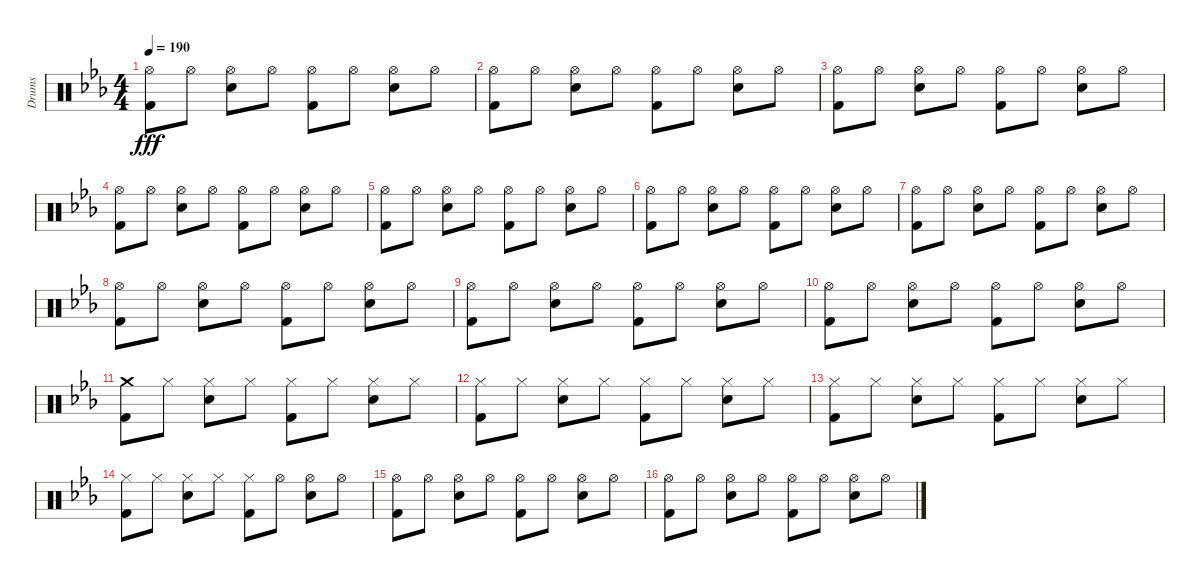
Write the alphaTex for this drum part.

\track ("Drums" "Drums") {instrument percussion}
\staff {score}
\articulation defaults
\ts (4 4)
\tempo 190
\clef neutral
\ks eb
("Hi-Hat (open)" "Kick (hit) 2").8{dy fff} "Hi-Hat (open)".8 ("Hi-Hat (open)" "Electric Snare (hit)").8 "Hi-Hat (open)".8 ("Hi-Hat (open)" "Kick (hit) 2").8 "Hi-Hat (open)".8 ("Hi-Hat (open)" "Electric Snare (hit)").8 "Hi-Hat (open)".8 |
("Hi-Hat (open)" "Kick (hit) 2").8 "Hi-Hat (open)".8 ("Hi-Hat (open)" "Electric Snare (hit)").8 "Hi-Hat (open)".8 ("Hi-Hat (open)" "Kick (hit) 2").8 "Hi-Hat (open)".8 ("Hi-Hat (open)" "Electric Snare (hit)").8 "Hi-Hat (open)".8 |
("Hi-Hat (open)" "Kick (hit) 2").8 "Hi-Hat (open)".8 ("Hi-Hat (open)" "Electric Snare (hit)").8 "Hi-Hat (open)".8 ("Hi-Hat (open)" "Kick (hit) 2").8 "Hi-Hat (open)".8 ("Hi-Hat (open)" "Electric Snare (hit)").8 "Hi-Hat (open)".8 |
("Hi-Hat (open)" "Kick (hit) 2").8 "Hi-Hat (open)".8 ("Hi-Hat (open)" "Electric Snare (hit)").8 "Hi-Hat (open)".8 ("Hi-Hat (open)" "Kick (hit) 2").8 "Hi-Hat (open)".8 ("Hi-Hat (open)" "Electric Snare (hit)").8 "Hi-Hat (open)".8 |
("Hi-Hat (open)" "Kick (hit) 2").8 "Hi-Hat (open)".8 ("Hi-Hat (open)" "Electric Snare (hit)").8 "Hi-Hat (open)".8 ("Hi-Hat (open)" "Kick (hit) 2").8 "Hi-Hat (open)".8 ("Hi-Hat (open)" "Electric Snare (hit)").8 "Hi-Hat (open)".8 |
("Hi-Hat (open)" "Kick (hit) 2").8 "Hi-Hat (open)".8 ("Hi-Hat (open)" "Electric Snare (hit)").8 "Hi-Hat (open)".8 ("Hi-Hat (open)" "Kick (hit) 2").8 "Hi-Hat (open)".8 ("Hi-Hat (open)" "Electric Snare (hit)").8 "Hi-Hat (open)".8 |
("Hi-Hat (open)" "Kick (hit) 2").8 "Hi-Hat (open)".8 ("Hi-Hat (open)" "Electric Snare (hit)").8 "Hi-Hat (open)".8 ("Hi-Hat (open)" "Kick (hit) 2").8 "Hi-Hat (open)".8 ("Hi-Hat (open)" "Electric Snare (hit)").8 "Hi-Hat (open)".8 |
("Hi-Hat (open)" "Kick (hit) 2").8 "Hi-Hat (open)".8 ("Hi-Hat (open)" "Electric Snare (hit)").8 "Hi-Hat (open)".8 ("Hi-Hat (open)" "Kick (hit) 2").8 "Hi-Hat (open)".8 ("Hi-Hat (open)" "Electric Snare (hit)").8 "Hi-Hat (open)".8 |
("Hi-Hat (open)" "Kick (hit) 2").8 "Hi-Hat (open)".8 ("Hi-Hat (open)" "Electric Snare (hit)").8 "Hi-Hat (open)".8 ("Hi-Hat (open)" "Kick (hit) 2").8 "Hi-Hat (open)".8 ("Hi-Hat (open)" "Electric Snare (hit)").8 "Hi-Hat (open)".8 |
("Hi-Hat (open)" "Kick (hit) 2").8 "Hi-Hat (open)".8 ("Hi-Hat (open)" "Electric Snare (hit)").8 "Hi-Hat (open)".8 ("Hi-Hat (open)" "Kick (hit) 2").8 "Hi-Hat (open)".8 ("Hi-Hat (open)" "Electric Snare (hit)").8 "Hi-Hat (open)".8 |
("Crash medium (hit)" "Kick (hit) 2").8 "Hi-Hat (closed)".8 ("Hi-Hat (closed)" "Electric Snare (hit)").8 "Hi-Hat (closed)".8 ("Hi-Hat (closed)" "Kick (hit) 2").8 "Hi-Hat (closed)".8 ("Hi-Hat (closed)" "Electric Snare (hit)").8 "Hi-Hat (closed)".8 |
("Hi-Hat (closed)" "Kick (hit) 2").8 "Hi-Hat (closed)".8 ("Hi-Hat (closed)" "Electric Snare (hit)").8 "Hi-Hat (closed)".8 ("Hi-Hat (closed)" "Kick (hit) 2").8 "Hi-Hat (closed)".8 ("Hi-Hat (closed)" "Electric Snare (hit)").8 "Hi-Hat (closed)".8 |
("Hi-Hat (closed)" "Kick (hit) 2").8 "Hi-Hat (closed)".8 ("Hi-Hat (closed)" "Electric Snare (hit)").8 "Hi-Hat (closed)".8 ("Hi-Hat (closed)" "Kick (hit) 2").8 "Hi-Hat (closed)".8 ("Hi-Hat (closed)" "Electric Snare (hit)").8 "Hi-Hat (closed)".8 |
("Hi-Hat (closed)" "Kick (hit) 2").8 "Hi-Hat (closed)".8 ("Hi-Hat (closed)" "Electric Snare (hit)").8 "Hi-Hat (closed)".8 ("Hi-Hat (closed)" "Kick (hit) 2").8 "Hi-Hat (open)".8 ("Hi-Hat (open)" "Electric Snare (hit)").8 "Hi-Hat (open)".8 |
("Hi-Hat (open)" "Kick (hit) 2").8 "Hi-Hat (open)".8 ("Hi-Hat (open)" "Electric Snare (hit)").8 "Hi-Hat (open)".8 ("Hi-Hat (open)" "Kick (hit) 2").8 "Hi-Hat (open)".8 ("Hi-Hat (open)" "Electric Snare (hit)").8 "Hi-Hat (open)".8 |
("Hi-Hat (open)" "Kick (hit) 2").8 "Hi-Hat (open)".8 ("Hi-Hat (open)" "Electric Snare (hit)").8 "Hi-Hat (open)".8 ("Hi-Hat (open)" "Kick (hit) 2").8 "Hi-Hat (open)".8 ("Hi-Hat (open)" "Electric Snare (hit)").8 "Hi-Hat (open)".8
